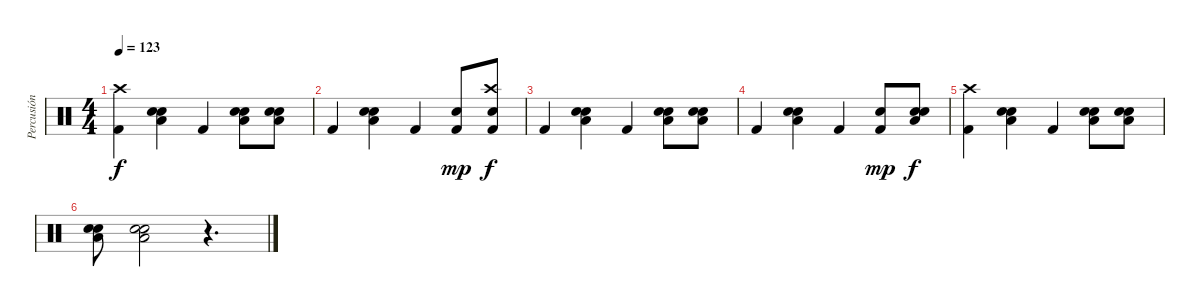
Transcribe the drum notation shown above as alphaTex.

\track ("Percusión" "Percusión") {instrument percussion}
\staff {score}
\articulation defaults
\ts (4 4)
\tempo 123
\clef neutral
\ks c
("Kick (hit) 2" "Crash high (hit)").4{dy f} ("Snare (hit) 2" "Low Tom (hit)" "Hand Clap (hit)").4 "Kick (hit) 2".4 ("Snare (hit) 2" "Low Tom (hit)" "Hand Clap (hit)").8 ("Snare (hit) 2" "Low Tom (hit)" "Hand Clap (hit)").8 |
"Kick (hit) 2".4 ("Snare (hit) 2" "Low Tom (hit)" "Hand Clap (hit)").4 "Kick (hit) 2".4 ("Kick (hit) 2" "Hand Clap (hit)").8{dy mp} ("Crash high (hit)" "Kick (hit) 2" "Hand Clap (hit)").8{dy f} |
"Kick (hit) 2".4 ("Snare (hit) 2" "Low Tom (hit)" "Hand Clap (hit)").4 "Kick (hit) 2".4 ("Snare (hit) 2" "Low Tom (hit)" "Hand Clap (hit)").8 ("Snare (hit) 2" "Low Tom (hit)" "Hand Clap (hit)").8 |
"Kick (hit) 2".4 ("Snare (hit) 2" "Low Tom (hit)" "Hand Clap (hit)").4 "Kick (hit) 2".4 ("Kick (hit) 2" "Hand Clap (hit)").8{dy mp} ("Snare (hit) 2" "Low Tom (hit)" "Hand Clap (hit)").8{dy f} |
("Kick (hit) 2" "Crash high (hit)").4 ("Snare (hit) 2" "Low Tom (hit)" "Hand Clap (hit)").4 "Kick (hit) 2".4 ("Snare (hit) 2" "Low Tom (hit)" "Hand Clap (hit)").8 ("Snare (hit) 2" "Low Tom (hit)" "Hand Clap (hit)").8 |
("Snare (hit) 2" "Low Tom (hit)" "Hand Clap (hit)").8 ("Snare (hit) 2" "Low Tom (hit)" "Hand Clap (hit)").2 r.4{d}
